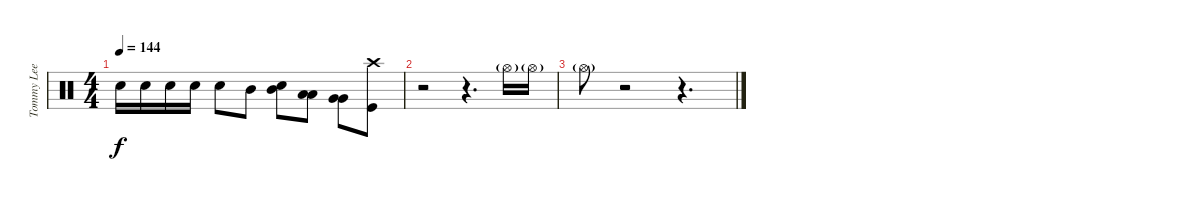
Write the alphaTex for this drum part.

\track ("Tommy Lee" "Tommy Lee") {instrument percussion}
\staff {score}
\articulation defaults
\ts (4 4)
\tempo 144
\clef neutral
\ks c "Snare (hit) 2".16{dy f} "Snare (hit) 2".16 "Snare (hit) 2".16 "Snare (hit) 2".16 "Snare (hit) 2".8 "Mid Tom (hit)".8
("Snare (hit) 2" "Mid Tom (hit)").8 ("Low Tom (hit)" "Low Tom (hit)").8 ("Very Low Tom (hit)" "Very Low Tom (hit)").8 ("Crash high (hit)" "Kick (hit)").8 |
r.2 r.4{d} "Hi-Hat (open)"{g}.16 "Hi-Hat (open)"{g}.16 |
"Hi-Hat (open)"{g}.8 r.2 r.4{d}
